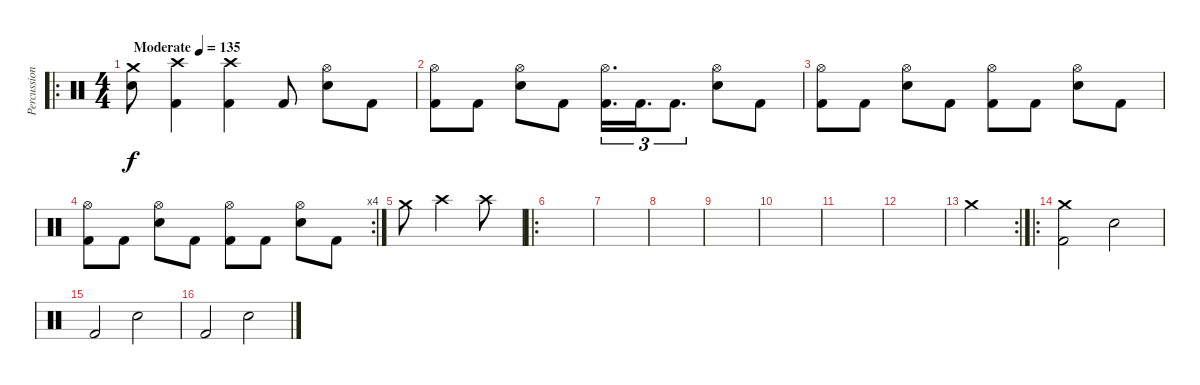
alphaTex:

\track ("Percussion" "Percussion") {instrument percussion}
\staff {score}
\articulation defaults
\ro
\ts (4 4)
\tempo (135 "Moderate")
\clef neutral
\ks c
("Crash medium (hit)" "Snare (hit) 2").8{dy f} ("Crash high (hit)" "Kick (hit) 2").4 ("Crash high (hit)" "Kick (hit) 2").4 "Kick (hit) 2".8 ("Hi-Hat (open)" "Snare (hit) 2").8 "Kick (hit) 2".8 |
("Hi-Hat (open)" "Kick (hit) 2").8 "Kick (hit) 2".8 ("Hi-Hat (open)" "Snare (hit) 2").8 "Kick (hit) 2".8 ("Hi-Hat (open)" "Kick (hit) 2").16{d tu (3 2)} "Kick (hit) 2".16{d tu (3 2)} "Kick (hit) 2".8{d tu (3 2)} ("Hi-Hat (open)" "Snare (hit) 2").8 "Kick (hit) 2".8 |
("Hi-Hat (open)" "Kick (hit) 2").8 "Kick (hit) 2".8 ("Hi-Hat (open)" "Snare (hit) 2").8 "Kick (hit) 2".8 ("Hi-Hat (open)" "Kick (hit) 2").8 "Kick (hit) 2".8 ("Hi-Hat (open)" "Snare (hit) 2").8 "Kick (hit) 2".8 |
\rc 4
("Hi-Hat (open)" "Kick (hit) 2").8 "Kick (hit) 2".8 ("Hi-Hat (open)" "Snare (hit) 2").8 "Kick (hit) 2".8 ("Hi-Hat (open)" "Kick (hit) 2").8 "Kick (hit) 2".8 ("Hi-Hat (open)" "Snare (hit) 2").8 "Kick (hit) 2".8 |
"Crash medium (hit)".8 "Crash high (hit)".4 "Crash high (hit)".8 |
\ro
|
|
|
|
|
|
|
\rc 2 "Crash medium (hit)".4
|
\ro
("Crash medium (hit)" "Kick (hit) 2").2 "Snare (hit) 2".2 |
"Kick (hit) 2".2 "Snare (hit) 2".2 |
"Kick (hit) 2".2 "Snare (hit) 2".2
